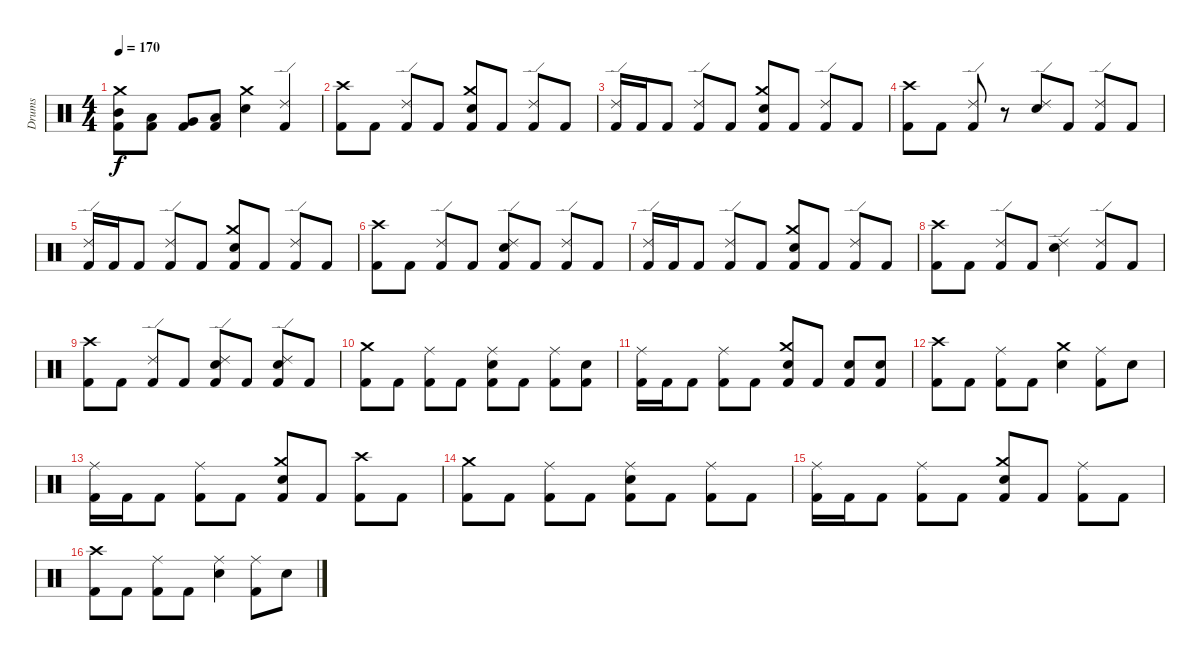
\track ("Drums" "Drums") {instrument percussion}
\staff {score}
\articulation defaults
\ts (4 4)
\tempo 170
\clef neutral
\ks c
("Kick (hit) 2" "Mid Tom (hit)" "Crash medium (hit)").8{dy f} ("Kick (hit) 2" "Low Tom (hit)").8 ("Kick (hit) 2" "Very Low Tom (hit)").8 ("Kick (hit) 2" "Low Floor Tom (hit)").8 ("Electric Snare (hit)" "Crash medium (hit)").4 ("Kick (hit) 2" "Ride (edge) 2").4 |
\section ("" "")
("Kick (hit) 2" "Crash high (hit)").8 "Kick (hit) 2".8 ("Kick (hit) 2" "Ride (edge) 2").8 "Kick (hit) 2".8 ("Kick (hit) 2" "Electric Snare (hit)" "Crash medium (hit)").8 "Kick (hit) 2".8 ("Kick (hit) 2" "Ride (edge) 2").8 "Kick (hit) 2".8 |
("Kick (hit) 2" "Ride (edge) 2").16 "Kick (hit) 2".16 "Kick (hit) 2".8 ("Kick (hit) 2" "Ride (edge) 2").8 "Kick (hit) 2".8 ("Kick (hit) 2" "Electric Snare (hit)" "Crash medium (hit)").8 "Kick (hit) 2".8 ("Kick (hit) 2" "Ride (edge) 2").8 "Kick (hit) 2".8 |
("Kick (hit) 2" "Crash high (hit)").8 "Kick (hit) 2".8 ("Kick (hit) 2" "Ride (edge) 2").8 r.8 ("Electric Snare (hit)" "Ride (edge) 2").8 "Kick (hit) 2".8 ("Kick (hit) 2" "Ride (edge) 2").8 "Kick (hit) 2".8 |
("Kick (hit) 2" "Ride (edge) 2").16 "Kick (hit) 2".16 "Kick (hit) 2".8 ("Kick (hit) 2" "Ride (edge) 2").8 "Kick (hit) 2".8 ("Kick (hit) 2" "Electric Snare (hit)" "Crash medium (hit)").8 "Kick (hit) 2".8 ("Kick (hit) 2" "Ride (edge) 2").8 "Kick (hit) 2".8 |
("Kick (hit) 2" "Crash high (hit)").8 "Kick (hit) 2".8 ("Kick (hit) 2" "Ride (edge) 2").8 "Kick (hit) 2".8 ("Kick (hit) 2" "Electric Snare (hit)" "Ride (edge) 2").8 "Kick (hit) 2".8 ("Kick (hit) 2" "Ride (edge) 2").8 "Kick (hit) 2".8 |
("Kick (hit) 2" "Ride (edge) 2").16 "Kick (hit) 2".16 "Kick (hit) 2".8 ("Kick (hit) 2" "Ride (edge) 2").8 "Kick (hit) 2".8 ("Kick (hit) 2" "Electric Snare (hit)" "Crash medium (hit)").8 "Kick (hit) 2".8 ("Kick (hit) 2" "Ride (edge) 2").8 "Kick (hit) 2".8 |
("Kick (hit) 2" "Crash high (hit)").8 "Kick (hit) 2".8 ("Kick (hit) 2" "Ride (edge) 2").8 "Kick (hit) 2".8 ("Electric Snare (hit)" "Ride (edge) 2").4 ("Kick (hit) 2" "Ride (edge) 2").8 "Kick (hit) 2".8 |
("Kick (hit) 2" "Crash high (hit)").8 "Kick (hit) 2".8 ("Kick (hit) 2" "Ride (edge) 2").8 "Kick (hit) 2".8 ("Kick (hit) 2" "Electric Snare (hit)" "Ride (edge) 2").8 "Kick (hit) 2".8 ("Kick (hit) 2" "Electric Snare (hit)" "Ride (edge) 2").8 "Kick (hit) 2".8 |
\section ("" "")
("Kick (hit) 2" "Crash medium (hit)").8 "Kick (hit) 2".8 ("Kick (hit) 2" "Ride (middle)").8 "Kick (hit) 2".8 ("Kick (hit) 2" "Electric Snare (hit)" "Ride (middle)").8 "Kick (hit) 2".8 ("Kick (hit) 2" "Ride (middle)").8 ("Kick (hit) 2" "Electric Snare (hit)").8 |
("Kick (hit) 2" "Ride (middle)").16 "Kick (hit) 2".16 "Kick (hit) 2".8 ("Kick (hit) 2" "Ride (middle)").8 "Kick (hit) 2".8 ("Kick (hit) 2" "Electric Snare (hit)" "Crash medium (hit)").8 "Kick (hit) 2".8 ("Kick (hit) 2" "Electric Snare (hit)").8 ("Kick (hit) 2" "Electric Snare (hit)").8 |
("Kick (hit) 2" "Crash high (hit)").8 "Kick (hit) 2".8 ("Kick (hit) 2" "Ride (middle)").8 "Kick (hit) 2".8 ("Electric Snare (hit)" "Crash medium (hit)").4 ("Kick (hit) 2" "Ride (middle)").8 "Electric Snare (hit)".8 |
("Kick (hit) 2" "Ride (middle)").16 "Kick (hit) 2".16 "Kick (hit) 2".8 ("Kick (hit) 2" "Ride (middle)").8 "Kick (hit) 2".8 ("Kick (hit) 2" "Electric Snare (hit)" "Crash medium (hit)").8 "Kick (hit) 2".8 ("Kick (hit) 2" "Crash high (hit)").8 "Kick (hit) 2".8 |
("Kick (hit) 2" "Crash medium (hit)").8 "Kick (hit) 2".8 ("Kick (hit) 2" "Ride (middle)").8 "Kick (hit) 2".8 ("Kick (hit) 2" "Electric Snare (hit)" "Ride (middle)").8 "Kick (hit) 2".8 ("Kick (hit) 2" "Ride (middle)").8 "Kick (hit) 2".8 |
("Kick (hit) 2" "Ride (middle)").16 "Kick (hit) 2".16 "Kick (hit) 2".8 ("Kick (hit) 2" "Ride (middle)").8 "Kick (hit) 2".8 ("Kick (hit) 2" "Electric Snare (hit)" "Crash medium (hit)").8 "Kick (hit) 2".8 ("Kick (hit) 2" "Ride (middle)").8 "Kick (hit) 2".8 |
("Kick (hit) 2" "Crash high (hit)").8 "Kick (hit) 2".8 ("Kick (hit) 2" "Ride (middle)").8 "Kick (hit) 2".8 ("Electric Snare (hit)" "Ride (middle)").4 ("Kick (hit) 2" "Ride (middle)").8 "Electric Snare (hit)".8
